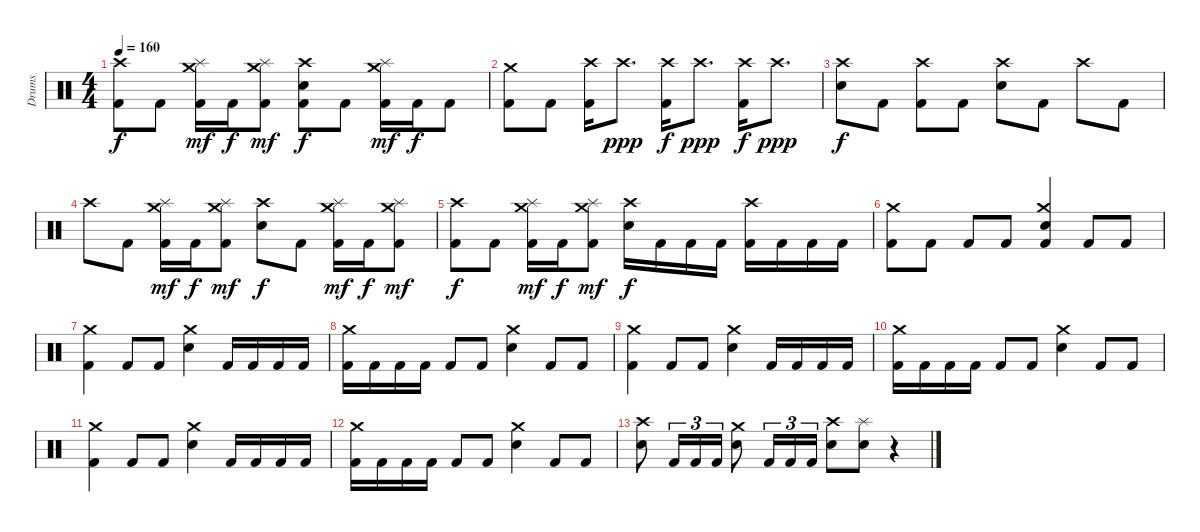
\track ("Drums" "Drums") {instrument percussion}
\staff {score}
\articulation defaults
\ts (4 4)
\tempo 160
\clef neutral
\ks c
("Crash high (hit)" "Kick (hit) 2").8{dy f} "Kick (hit) 2".8 ("Splash (hit)" "Crash medium (hit)" "Kick (hit) 2").16{dy mf} "Kick (hit) 2".16{dy f} ("Splash (hit)" "Crash medium (hit)" "Kick (hit) 2").8{dy mf} ("Crash high (hit)" "Electric Snare (hit)" "Kick (hit) 2").8{dy f} "Kick (hit) 2".8 ("Splash (hit)" "Crash medium (hit)" "Kick (hit) 2").16{dy mf} "Kick (hit) 2".16{dy f} "Kick (hit) 2".8 |
("Crash medium (hit)" "Kick (hit) 2").8 "Kick (hit) 2".8 ("Crash high (hit)" "Kick (hit) 2").16 "Crash high (hit)".8{d dy ppp} ("Crash high (hit)" "Kick (hit) 2").16{dy f} "Crash high (hit)".8{d dy ppp} ("Crash high (hit)" "Kick (hit) 2").16{dy f} "Crash high (hit)".8{d dy ppp} |
("Crash high (hit)" "Electric Snare (hit)").8{dy f} "Kick (hit) 2".8 ("Crash high (hit)" "Kick (hit) 2").8 "Kick (hit) 2".8 ("Crash high (hit)" "Electric Snare (hit)").8 "Kick (hit) 2".8 "Crash high (hit)".8 "Kick (hit) 2".8 |
"Crash high (hit)".8 "Kick (hit) 2".8 ("Splash (hit)" "Crash medium (hit)" "Kick (hit) 2").16{dy mf} "Kick (hit) 2".16{dy f} ("Splash (hit)" "Crash medium (hit)" "Kick (hit) 2").8{dy mf} ("Crash high (hit)" "Electric Snare (hit)").8{dy f} "Kick (hit) 2".8 ("Splash (hit)" "Crash medium (hit)" "Kick (hit) 2").16{dy mf} "Kick (hit) 2".16{dy f} ("Splash (hit)" "Crash medium (hit)" "Kick (hit) 2").8{dy mf} |
("Crash high (hit)" "Kick (hit) 2").8{dy f} "Kick (hit) 2".8 ("Splash (hit)" "Crash medium (hit)" "Kick (hit) 2").16{dy mf} "Kick (hit) 2".16{dy f} ("Splash (hit)" "Crash medium (hit)" "Kick (hit) 2").8{dy mf} ("Crash high (hit)" "Electric Snare (hit)").16{dy f} "Kick (hit) 2".16 "Kick (hit) 2".16 "Kick (hit) 2".16 ("Crash high (hit)" "Kick (hit) 2").16 "Kick (hit) 2".16 "Kick (hit) 2".16 "Kick (hit) 2".16 |
("Crash medium (hit)" "Kick (hit) 2").8 "Kick (hit) 2".8 "Kick (hit) 2".8 "Kick (hit) 2".8 ("Crash medium (hit)" "Electric Snare (hit)" "Kick (hit) 2").4 "Kick (hit) 2".8 "Kick (hit) 2".8 |
("Crash medium (hit)" "Kick (hit) 2").4 "Kick (hit) 2".8 "Kick (hit) 2".8 ("Crash medium (hit)" "Electric Snare (hit)").4 "Kick (hit) 2".16 "Kick (hit) 2".16 "Kick (hit) 2".16 "Kick (hit) 2".16 |
("Crash medium (hit)" "Kick (hit) 2").16 "Kick (hit) 2".16 "Kick (hit) 2".16 "Kick (hit) 2".16 "Kick (hit) 2".8 "Kick (hit) 2".8 ("Crash medium (hit)" "Electric Snare (hit)").4 "Kick (hit) 2".8 "Kick (hit) 2".8 |
("Crash medium (hit)" "Kick (hit) 2").4 "Kick (hit) 2".8 "Kick (hit) 2".8 ("Crash medium (hit)" "Electric Snare (hit)").4 "Kick (hit) 2".16 "Kick (hit) 2".16 "Kick (hit) 2".16 "Kick (hit) 2".16 |
("Crash medium (hit)" "Kick (hit) 2").16 "Kick (hit) 2".16 "Kick (hit) 2".16 "Kick (hit) 2".16 "Kick (hit) 2".8 "Kick (hit) 2".8 ("Crash medium (hit)" "Electric Snare (hit)").4 "Kick (hit) 2".8 "Kick (hit) 2".8 |
("Crash medium (hit)" "Kick (hit) 2").4 "Kick (hit) 2".8 "Kick (hit) 2".8 ("Crash medium (hit)" "Electric Snare (hit)").4 "Kick (hit) 2".16 "Kick (hit) 2".16 "Kick (hit) 2".16 "Kick (hit) 2".16 |
("Crash medium (hit)" "Kick (hit) 2").16 "Kick (hit) 2".16 "Kick (hit) 2".16 "Kick (hit) 2".16 "Kick (hit) 2".8 "Kick (hit) 2".8 ("Crash medium (hit)" "Electric Snare (hit)").4 "Kick (hit) 2".8 "Kick (hit) 2".8 |
("Crash high (hit)" "Electric Snare (hit)").8 "Kick (hit) 2".16{tu (3 2)} "Kick (hit) 2".16{tu (3 2)} "Kick (hit) 2".16{tu (3 2)} ("Crash medium (hit)" "Electric Snare (hit)").8 "Kick (hit) 2".16{tu (3 2)} "Kick (hit) 2".16{tu (3 2)} "Kick (hit) 2".16{tu (3 2)} ("Crash high (hit)" "Electric Snare (hit)").8 ("Splash (hit)" "Electric Snare (hit)").8 r.4
